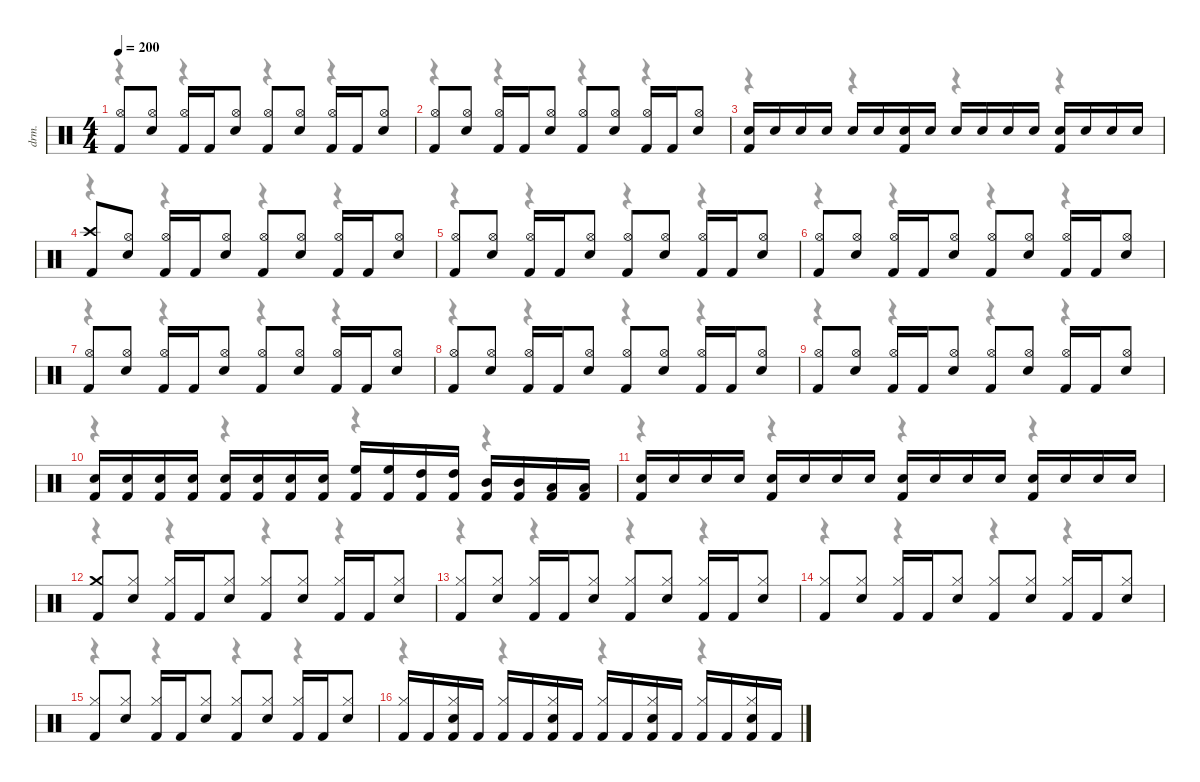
\defaultSystemsLayout 4
\hideDynamics
\bracketExtendMode nobrackets
\otherSystemsTrackNameOrientation horizontal
\track ("David Mackintosh (Drums)" "drm.") {instrument percussion}
\staff {score}
\articulation defaults
\voice
\ts (4 4)
\tempo 200
\clef neutral
\ks c
("Kick (hit) 2" "Hi-Hat (open)").8{dy f} ("Snare (hit) 2" "Hi-Hat (open)").8 ("Kick (hit) 2" "Hi-Hat (open)").16 "Kick (hit) 2".16 ("Snare (hit) 2" "Hi-Hat (open)").8 ("Kick (hit) 2" "Hi-Hat (open)").8 ("Snare (hit) 2" "Hi-Hat (open)").8 ("Kick (hit) 2" "Hi-Hat (open)").16 "Kick (hit) 2".16 ("Snare (hit) 2" "Hi-Hat (open)").8 |
("Kick (hit) 2" "Hi-Hat (open)").8 ("Snare (hit) 2" "Hi-Hat (open)").8 ("Kick (hit) 2" "Hi-Hat (open)").16 "Kick (hit) 2".16 ("Snare (hit) 2" "Hi-Hat (open)").8 ("Kick (hit) 2" "Hi-Hat (open)").8 ("Snare (hit) 2" "Hi-Hat (open)").8 ("Kick (hit) 2" "Hi-Hat (open)").16 "Kick (hit) 2".16 ("Snare (hit) 2" "Hi-Hat (open)").8 |
("Kick (hit) 2" "Snare (hit) 2").16{dy ff} "Snare (hit) 2".16{dy f} "Snare (hit) 2".16 "Snare (hit) 2".16 "Snare (hit) 2".16 "Snare (hit) 2".16 ("Kick (hit) 2" "Snare (hit) 2").16{dy ff} "Snare (hit) 2".16{dy f} "Snare (hit) 2".16 "Snare (hit) 2".16 "Snare (hit) 2".16 "Snare (hit) 2".16 ("Kick (hit) 2" "Snare (hit) 2").16{dy ff} "Snare (hit) 2".16{dy f} "Snare (hit) 2".16 "Snare (hit) 2".16 |
("Kick (hit) 2" "Crash high (hit)").8 ("Snare (hit) 2" "Hi-Hat (open)").8 ("Kick (hit) 2" "Hi-Hat (open)").16 "Kick (hit) 2".16 ("Snare (hit) 2" "Hi-Hat (open)").8 ("Kick (hit) 2" "Hi-Hat (open)").8 ("Snare (hit) 2" "Hi-Hat (open)").8 ("Kick (hit) 2" "Hi-Hat (open)").16 "Kick (hit) 2".16 ("Snare (hit) 2" "Hi-Hat (open)").8 |
("Kick (hit) 2" "Hi-Hat (open)").8 ("Snare (hit) 2" "Hi-Hat (open)").8 ("Kick (hit) 2" "Hi-Hat (open)").16 "Kick (hit) 2".16 ("Snare (hit) 2" "Hi-Hat (open)").8 ("Kick (hit) 2" "Hi-Hat (open)").8 ("Snare (hit) 2" "Hi-Hat (open)").8 ("Kick (hit) 2" "Hi-Hat (open)").16 "Kick (hit) 2".16 ("Snare (hit) 2" "Hi-Hat (open)").8 |
("Kick (hit) 2" "Hi-Hat (open)").8 ("Snare (hit) 2" "Hi-Hat (open)").8 ("Kick (hit) 2" "Hi-Hat (open)").16 "Kick (hit) 2".16 ("Snare (hit) 2" "Hi-Hat (open)").8 ("Kick (hit) 2" "Hi-Hat (open)").8 ("Snare (hit) 2" "Hi-Hat (open)").8 ("Kick (hit) 2" "Hi-Hat (open)").16 "Kick (hit) 2".16 ("Snare (hit) 2" "Hi-Hat (open)").8 |
("Kick (hit) 2" "Hi-Hat (open)").8 ("Snare (hit) 2" "Hi-Hat (open)").8 ("Kick (hit) 2" "Hi-Hat (open)").16 "Kick (hit) 2".16 ("Snare (hit) 2" "Hi-Hat (open)").8 ("Kick (hit) 2" "Hi-Hat (open)").8 ("Snare (hit) 2" "Hi-Hat (open)").8 ("Kick (hit) 2" "Hi-Hat (open)").16 "Kick (hit) 2".16 ("Snare (hit) 2" "Hi-Hat (open)").8 |
("Kick (hit) 2" "Hi-Hat (open)").8 ("Snare (hit) 2" "Hi-Hat (open)").8 ("Kick (hit) 2" "Hi-Hat (open)").16 "Kick (hit) 2".16 ("Snare (hit) 2" "Hi-Hat (open)").8 ("Kick (hit) 2" "Hi-Hat (open)").8 ("Snare (hit) 2" "Hi-Hat (open)").8 ("Kick (hit) 2" "Hi-Hat (open)").16 "Kick (hit) 2".16 ("Snare (hit) 2" "Hi-Hat (open)").8 |
("Kick (hit) 2" "Hi-Hat (open)").8 ("Snare (hit) 2" "Hi-Hat (open)").8 ("Kick (hit) 2" "Hi-Hat (open)").16 "Kick (hit) 2".16 ("Snare (hit) 2" "Hi-Hat (open)").8 ("Kick (hit) 2" "Hi-Hat (open)").8 ("Snare (hit) 2" "Hi-Hat (open)").8 ("Kick (hit) 2" "Hi-Hat (open)").16 "Kick (hit) 2".16 ("Snare (hit) 2" "Hi-Hat (open)").8 |
("Kick (hit) 2" "Snare (hit) 2").16 ("Kick (hit) 2" "Snare (hit) 2").16 ("Kick (hit) 2" "Snare (hit) 2").16 ("Kick (hit) 2" "Snare (hit) 2").16 ("Kick (hit) 2" "Snare (hit) 2").16 ("Kick (hit) 2" "Snare (hit) 2").16 ("Kick (hit) 2" "Snare (hit) 2").16 ("Kick (hit) 2" "Snare (hit) 2").16 ("Kick (hit) 2" "High Floor Tom (hit)").16 ("Kick (hit) 2" "High Floor Tom (hit)").16 ("Kick (hit) 2" "High Tom (hit)").16 ("Kick (hit) 2" "High Tom (hit)").16 ("Kick (hit) 2" "Mid Tom (hit)").16 ("Kick (hit) 2" "Mid Tom (hit)").16 ("Kick (hit) 2" "Low Tom (hit)").16 ("Kick (hit) 2" "Low Tom (hit)").16 |
("Kick (hit) 2" "Snare (hit) 2").16{dy ff} "Snare (hit) 2".16{dy f} "Snare (hit) 2".16 "Snare (hit) 2".16 ("Kick (hit) 2" "Snare (hit) 2").16{dy ff} "Snare (hit) 2".16{dy f} "Snare (hit) 2".16 "Snare (hit) 2".16 ("Kick (hit) 2" "Snare (hit) 2").16{dy ff} "Snare (hit) 2".16{dy f} "Snare (hit) 2".16 "Snare (hit) 2".16 ("Kick (hit) 2" "Snare (hit) 2").16{dy ff} "Snare (hit) 2".16{dy f} "Snare (hit) 2".16 "Snare (hit) 2".16 |
("Kick (hit) 2" "Crash medium (hit)").8 ("Snare (hit) 2" "Hi-Hat (closed)").8 ("Kick (hit) 2" "Hi-Hat (closed)").16 "Kick (hit) 2".16 ("Snare (hit) 2" "Hi-Hat (closed)").8 ("Kick (hit) 2" "Hi-Hat (closed)").8 ("Snare (hit) 2" "Hi-Hat (closed)").8 ("Kick (hit) 2" "Hi-Hat (closed)").16 "Kick (hit) 2".16 ("Snare (hit) 2" "Hi-Hat (closed)").8 |
("Kick (hit) 2" "Hi-Hat (closed)").8 ("Snare (hit) 2" "Hi-Hat (closed)").8 ("Kick (hit) 2" "Hi-Hat (closed)").16 "Kick (hit) 2".16 ("Snare (hit) 2" "Hi-Hat (closed)").8 ("Kick (hit) 2" "Hi-Hat (closed)").8 ("Snare (hit) 2" "Hi-Hat (closed)").8 ("Kick (hit) 2" "Hi-Hat (closed)").16 "Kick (hit) 2".16 ("Snare (hit) 2" "Hi-Hat (closed)").8 |
("Kick (hit) 2" "Hi-Hat (closed)").8 ("Snare (hit) 2" "Hi-Hat (closed)").8 ("Kick (hit) 2" "Hi-Hat (closed)").16 "Kick (hit) 2".16 ("Snare (hit) 2" "Hi-Hat (closed)").8 ("Kick (hit) 2" "Hi-Hat (closed)").8 ("Snare (hit) 2" "Hi-Hat (closed)").8 ("Kick (hit) 2" "Hi-Hat (closed)").16 "Kick (hit) 2".16 ("Snare (hit) 2" "Hi-Hat (closed)").8 |
("Kick (hit) 2" "Hi-Hat (closed)").8 ("Snare (hit) 2" "Hi-Hat (closed)").8 ("Kick (hit) 2" "Hi-Hat (closed)").16 "Kick (hit) 2".16 ("Snare (hit) 2" "Hi-Hat (closed)").8 ("Kick (hit) 2" "Hi-Hat (closed)").8 ("Snare (hit) 2" "Hi-Hat (closed)").8 ("Kick (hit) 2" "Hi-Hat (closed)").16 "Kick (hit) 2".16 ("Snare (hit) 2" "Hi-Hat (closed)").8 |
("Kick (hit) 2" "Hi-Hat (closed)").16 "Kick (hit) 2".16 ("Kick (hit) 2" "Snare (hit) 2" "Hi-Hat (closed)").16 "Kick (hit) 2".16 ("Kick (hit) 2" "Hi-Hat (closed)").16 "Kick (hit) 2".16 ("Kick (hit) 2" "Snare (hit) 2" "Hi-Hat (closed)").16 "Kick (hit) 2".16 ("Kick (hit) 2" "Hi-Hat (closed)").16 "Kick (hit) 2".16 ("Kick (hit) 2" "Snare (hit) 2" "Hi-Hat (closed)").16 "Kick (hit) 2".16 ("Kick (hit) 2" "Hi-Hat (closed)").16 "Kick (hit) 2".16 ("Kick (hit) 2" "Snare (hit) 2" "Hi-Hat (closed)").16 "Kick (hit) 2".16
\voice
\clef neutral
\ottava regular
\simile none
\ks c
r.4{dy mf} r.4 r.4 r.4 |
r.4 r.4 r.4 r.4 |
r.4 r.4 r.4 r.4 |
r.4 r.4 r.4 r.4 |
r.4 r.4 r.4 r.4 |
r.4 r.4 r.4 r.4 |
r.4 r.4 r.4 r.4 |
r.4 r.4 r.4 r.4 |
r.4 r.4 r.4 r.4 |
r.4 r.4 r.4 r.4 |
r.4 r.4 r.4 r.4 |
r.4 r.4 r.4 r.4 |
r.4 r.4 r.4 r.4 |
r.4 r.4 r.4 r.4 |
r.4 r.4 r.4 r.4 |
r.4 r.4 r.4 r.4
